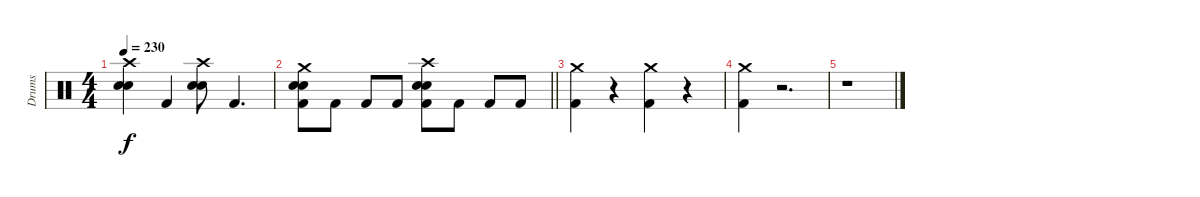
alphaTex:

\track ("Drums" "Drums") {instrument percussion}
\staff {score}
\articulation defaults
\ts (4 4)
\tempo 230
\clef neutral
\ks c
("Crash high (hit)" "Electric Snare (hit)" "Electric Snare (hit)").4{dy f} "Kick (hit) 2".4 ("Crash high (hit)" "Electric Snare (hit)" "Electric Snare (hit)").8 "Kick (hit) 2".4{d} |
\barLineRight lightlight
("Crash medium (hit)" "Electric Snare (hit)" "Electric Snare (hit)" "Kick (hit) 2").8 "Kick (hit) 2".8 "Kick (hit) 2".8 "Kick (hit) 2".8 ("Crash high (hit)" "Electric Snare (hit)" "Electric Snare (hit)" "Kick (hit) 2").8 "Kick (hit) 2".8 "Kick (hit) 2".8 "Kick (hit) 2".8 |
("Crash medium (hit)" "Kick (hit) 2").4 r.4 ("Crash medium (hit)" "Kick (hit) 2").4 r.4 |
("Crash medium (hit)" "Kick (hit) 2").4 r.2{d} |
r.1
